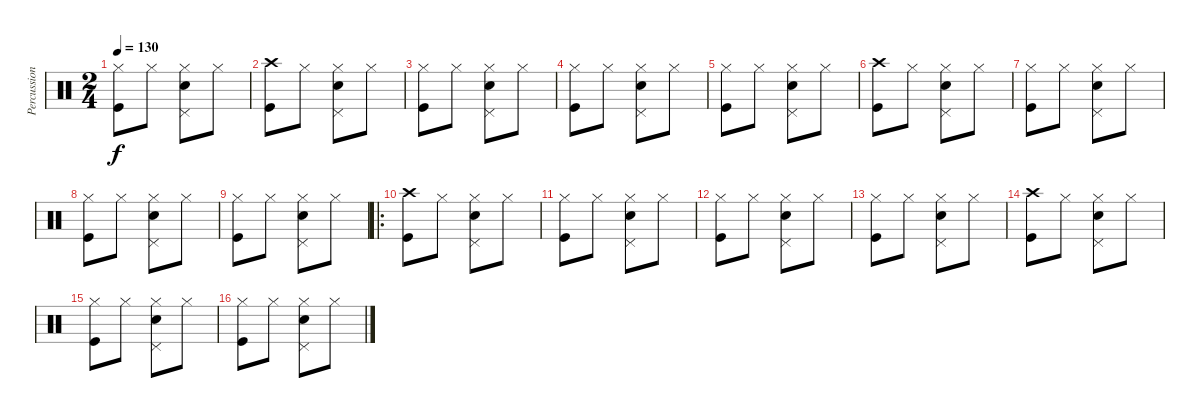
\track ("Percussioni" "Percussion") {instrument percussion}
\staff {score}
\articulation defaults
\ts (2 4)
\tempo 130
\clef neutral
\ks c
("Hi-Hat (closed)" "Kick (hit)").8{dy f} "Hi-Hat (closed)".8 ("Hi-Hat (closed)" "Pedal Hi-Hat (hit)" "Snare (hit) 2").8 "Hi-Hat (closed)".8 |
("Crash high (hit)" "Kick (hit)").8 "Hi-Hat (closed)".8 ("Hi-Hat (closed)" "Pedal Hi-Hat (hit)" "Snare (hit) 2").8 "Hi-Hat (closed)".8 |
("Hi-Hat (closed)" "Kick (hit)").8 "Hi-Hat (closed)".8 ("Hi-Hat (closed)" "Pedal Hi-Hat (hit)" "Snare (hit) 2").8 "Hi-Hat (closed)".8 |
("Hi-Hat (closed)" "Kick (hit)").8 "Hi-Hat (closed)".8 ("Hi-Hat (closed)" "Pedal Hi-Hat (hit)" "Snare (hit) 2").8 "Hi-Hat (closed)".8 |
("Hi-Hat (closed)" "Kick (hit)").8 "Hi-Hat (closed)".8 ("Hi-Hat (closed)" "Pedal Hi-Hat (hit)" "Snare (hit) 2").8 "Hi-Hat (closed)".8 |
("Crash high (hit)" "Kick (hit)").8 "Hi-Hat (closed)".8 ("Hi-Hat (closed)" "Pedal Hi-Hat (hit)" "Snare (hit) 2").8 "Hi-Hat (closed)".8 |
("Hi-Hat (closed)" "Kick (hit)").8 "Hi-Hat (closed)".8 ("Hi-Hat (closed)" "Pedal Hi-Hat (hit)" "Snare (hit) 2").8 "Hi-Hat (closed)".8 |
("Hi-Hat (closed)" "Kick (hit)").8 "Hi-Hat (closed)".8 ("Hi-Hat (closed)" "Pedal Hi-Hat (hit)" "Snare (hit) 2").8 "Hi-Hat (closed)".8 |
("Hi-Hat (closed)" "Kick (hit)").8 "Hi-Hat (closed)".8 ("Hi-Hat (closed)" "Pedal Hi-Hat (hit)" "Snare (hit) 2").8 "Hi-Hat (closed)".8 |
\ro
("Crash high (hit)" "Kick (hit)").8 "Hi-Hat (closed)".8 ("Hi-Hat (closed)" "Pedal Hi-Hat (hit)" "Snare (hit) 2").8 "Hi-Hat (closed)".8 |
("Hi-Hat (closed)" "Kick (hit)").8 "Hi-Hat (closed)".8 ("Hi-Hat (closed)" "Pedal Hi-Hat (hit)" "Snare (hit) 2").8 "Hi-Hat (closed)".8 |
("Hi-Hat (closed)" "Kick (hit)").8 "Hi-Hat (closed)".8 ("Hi-Hat (closed)" "Pedal Hi-Hat (hit)" "Snare (hit) 2").8 "Hi-Hat (closed)".8 |
("Hi-Hat (closed)" "Kick (hit)").8 "Hi-Hat (closed)".8 ("Hi-Hat (closed)" "Pedal Hi-Hat (hit)" "Snare (hit) 2").8 "Hi-Hat (closed)".8 |
("Crash high (hit)" "Kick (hit)").8 "Hi-Hat (closed)".8 ("Hi-Hat (closed)" "Pedal Hi-Hat (hit)" "Snare (hit) 2").8 "Hi-Hat (closed)".8 |
("Hi-Hat (closed)" "Kick (hit)").8 "Hi-Hat (closed)".8 ("Hi-Hat (closed)" "Pedal Hi-Hat (hit)" "Snare (hit) 2").8 "Hi-Hat (closed)".8 |
("Hi-Hat (closed)" "Kick (hit)").8 "Hi-Hat (closed)".8 ("Hi-Hat (closed)" "Pedal Hi-Hat (hit)" "Snare (hit) 2").8 "Hi-Hat (closed)".8
